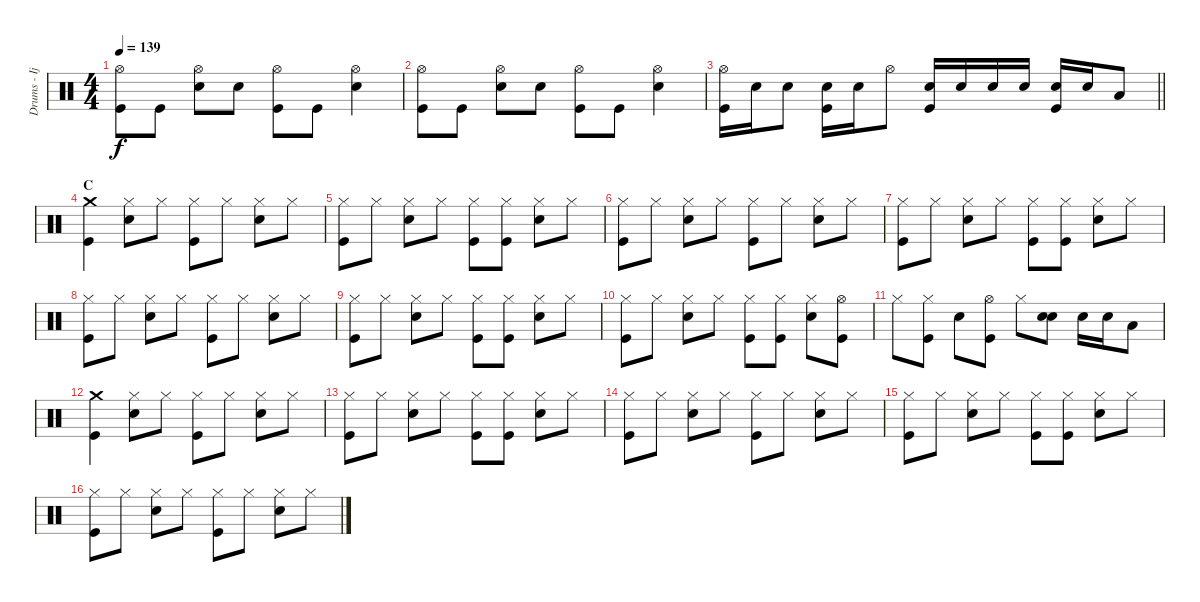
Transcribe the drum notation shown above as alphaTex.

\track ("Drums - Ijichi" "Drums - Ij") {instrument percussion}
\staff {score}
\articulation defaults
\ts (4 4)
\tempo 139
\clef neutral
\ks c
("Hi-Hat (open)" "Kick (hit)").8{dy f} "Kick (hit)".8 ("Hi-Hat (open)" "Electric Snare (hit)").8 "Electric Snare (hit)".8 ("Hi-Hat (open)" "Kick (hit)").8 "Kick (hit)".8 ("Hi-Hat (open)" "Electric Snare (hit)").4 |
("Hi-Hat (open)" "Kick (hit)").8 "Kick (hit)".8 ("Hi-Hat (open)" "Electric Snare (hit)").8 "Electric Snare (hit)".8 ("Hi-Hat (open)" "Kick (hit)").8 "Kick (hit)".8 ("Hi-Hat (open)" "Electric Snare (hit)").4 |
\barLineRight lightlight
("Hi-Hat (open)" "Kick (hit)").16 "Electric Snare (hit)".16 "Electric Snare (hit)".8 ("Electric Snare (hit)" "Kick (hit)").16 "Electric Snare (hit)".16 "Hi-Hat (open)".8 ("Electric Snare (hit)" "Kick (hit)").16 "Electric Snare (hit)".16 "Electric Snare (hit)".16 "Electric Snare (hit)".16 ("Electric Snare (hit)" "Kick (hit)").16 "Electric Snare (hit)".16 "Low Tom (hit)".8 |
\section ("" "C")
("Crash medium (hit)" "Kick (hit)").4 ("Hi-Hat (closed)" "Electric Snare (hit)").8 "Hi-Hat (closed)".8 ("Hi-Hat (closed)" "Kick (hit)").8 "Hi-Hat (closed)".8 ("Hi-Hat (closed)" "Electric Snare (hit)").8 "Hi-Hat (closed)".8 |
("Hi-Hat (closed)" "Kick (hit)").8 "Hi-Hat (closed)".8 ("Hi-Hat (closed)" "Electric Snare (hit)").8 "Hi-Hat (closed)".8 ("Hi-Hat (closed)" "Kick (hit)").8 ("Hi-Hat (closed)" "Kick (hit)").8 ("Hi-Hat (closed)" "Electric Snare (hit)").8 "Hi-Hat (closed)".8 |
("Hi-Hat (closed)" "Kick (hit)").8 "Hi-Hat (closed)".8 ("Hi-Hat (closed)" "Electric Snare (hit)").8 "Hi-Hat (closed)".8 ("Hi-Hat (closed)" "Kick (hit)").8 "Hi-Hat (closed)".8 ("Hi-Hat (closed)" "Electric Snare (hit)").8 "Hi-Hat (closed)".8 |
("Hi-Hat (closed)" "Kick (hit)").8 "Hi-Hat (closed)".8 ("Hi-Hat (closed)" "Electric Snare (hit)").8 "Hi-Hat (closed)".8 ("Hi-Hat (closed)" "Kick (hit)").8 ("Hi-Hat (closed)" "Kick (hit)").8 ("Hi-Hat (closed)" "Electric Snare (hit)").8 "Hi-Hat (closed)".8 |
("Hi-Hat (closed)" "Kick (hit)").8 "Hi-Hat (closed)".8 ("Hi-Hat (closed)" "Electric Snare (hit)").8 "Hi-Hat (closed)".8 ("Hi-Hat (closed)" "Kick (hit)").8 "Hi-Hat (closed)".8 ("Hi-Hat (closed)" "Electric Snare (hit)").8 "Hi-Hat (closed)".8 |
("Hi-Hat (closed)" "Kick (hit)").8 "Hi-Hat (closed)".8 ("Hi-Hat (closed)" "Electric Snare (hit)").8 "Hi-Hat (closed)".8 ("Hi-Hat (closed)" "Kick (hit)").8 ("Hi-Hat (closed)" "Kick (hit)").8 ("Hi-Hat (closed)" "Electric Snare (hit)").8 "Hi-Hat (closed)".8 |
("Hi-Hat (closed)" "Kick (hit)").8 "Hi-Hat (closed)".8 ("Hi-Hat (closed)" "Electric Snare (hit)").8 "Hi-Hat (closed)".8 ("Hi-Hat (closed)" "Kick (hit)").8 ("Hi-Hat (closed)" "Kick (hit)").8 ("Hi-Hat (closed)" "Electric Snare (hit)").8 ("Hi-Hat (open)" "Kick (hit)").8 |
"Hi-Hat (closed)".8 ("Hi-Hat (closed)" "Kick (hit)").8 "Electric Snare (hit)".8 ("Hi-Hat (open)" "Kick (hit)").8 "Hi-Hat (closed)".8 ("Electric Snare (hit)" "Electric Snare (hit)").8 "Electric Snare (hit)".16 "Electric Snare (hit)".16 "Low Tom (hit)".8 |
("Crash medium (hit)" "Kick (hit)").4 ("Hi-Hat (closed)" "Electric Snare (hit)").8 "Hi-Hat (closed)".8 ("Hi-Hat (closed)" "Kick (hit)").8 "Hi-Hat (closed)".8 ("Hi-Hat (closed)" "Electric Snare (hit)").8 "Hi-Hat (closed)".8 |
("Hi-Hat (closed)" "Kick (hit)").8 "Hi-Hat (closed)".8 ("Hi-Hat (closed)" "Electric Snare (hit)").8 "Hi-Hat (closed)".8 ("Hi-Hat (closed)" "Kick (hit)").8 ("Hi-Hat (closed)" "Kick (hit)").8 ("Hi-Hat (closed)" "Electric Snare (hit)").8 "Hi-Hat (closed)".8 |
("Hi-Hat (closed)" "Kick (hit)").8 "Hi-Hat (closed)".8 ("Hi-Hat (closed)" "Electric Snare (hit)").8 "Hi-Hat (closed)".8 ("Hi-Hat (closed)" "Kick (hit)").8 "Hi-Hat (closed)".8 ("Hi-Hat (closed)" "Electric Snare (hit)").8 "Hi-Hat (closed)".8 |
("Hi-Hat (closed)" "Kick (hit)").8 "Hi-Hat (closed)".8 ("Hi-Hat (closed)" "Electric Snare (hit)").8 "Hi-Hat (closed)".8 ("Hi-Hat (closed)" "Kick (hit)").8 ("Hi-Hat (closed)" "Kick (hit)").8 ("Hi-Hat (closed)" "Electric Snare (hit)").8 "Hi-Hat (closed)".8 |
("Hi-Hat (closed)" "Kick (hit)").8 "Hi-Hat (closed)".8 ("Hi-Hat (closed)" "Electric Snare (hit)").8 "Hi-Hat (closed)".8 ("Hi-Hat (closed)" "Kick (hit)").8 "Hi-Hat (closed)".8 ("Hi-Hat (closed)" "Electric Snare (hit)").8 "Hi-Hat (closed)".8
